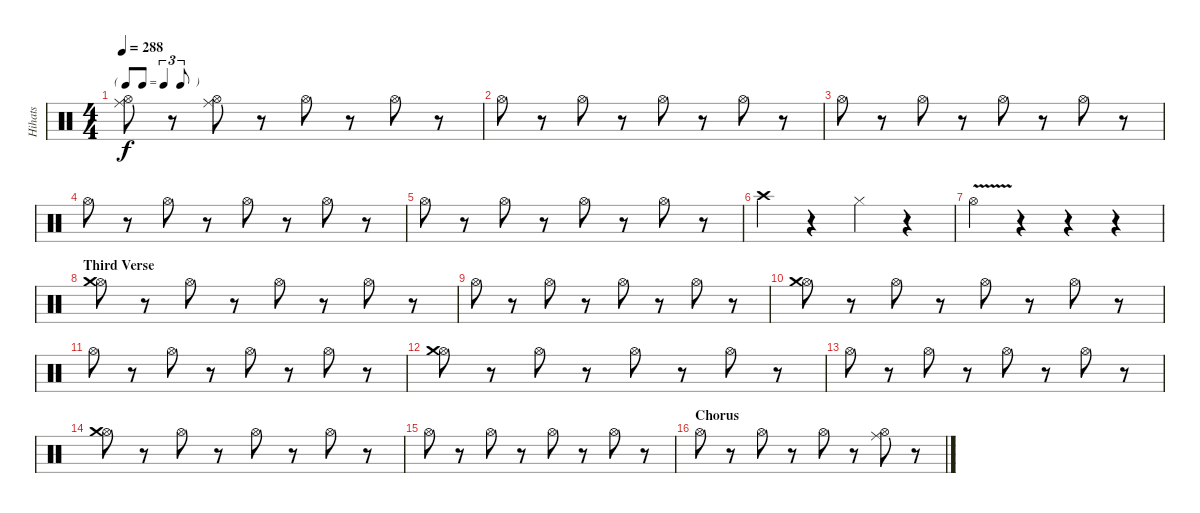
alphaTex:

\track ("Hihats" "Hihats") {instrument percussion}
\staff {score}
\articulation defaults
\ts (4 4)
\tf triplet8th
\tempo 288
\clef neutral
\ks c
("Hi-Hat (open)" "Ride (middle)").8{dy f} r.8 ("Hi-Hat (open)" "Ride (middle)").8 r.8 "Hi-Hat (open)".8 r.8 "Hi-Hat (open)".8 r.8 |
"Hi-Hat (open)".8 r.8 "Hi-Hat (open)".8 r.8 "Hi-Hat (open)".8 r.8 "Hi-Hat (open)".8 r.8 |
"Hi-Hat (open)".8 r.8 "Hi-Hat (open)".8 r.8 "Hi-Hat (open)".8 r.8 "Hi-Hat (open)".8 r.8 |
"Hi-Hat (open)".8 r.8 "Hi-Hat (open)".8 r.8 "Hi-Hat (open)".8 r.8 "Hi-Hat (open)".8 r.8 |
"Hi-Hat (open)".8 r.8 "Hi-Hat (open)".8 r.8 "Hi-Hat (open)".8 r.8 "Hi-Hat (open)".8 r.8 |
"Crash high (hit)".4 r.4 "Hi-Hat (closed)".4 r.4 |
"Hi-Hat (open)"{v}.4 r.4 r.4 r.4 |
\section ("" "Third Verse")
("Hi-Hat (open)" "Crash medium (hit)").8 r.8 "Hi-Hat (open)".8 r.8 "Hi-Hat (open)".8 r.8 "Hi-Hat (open)".8 r.8 |
"Hi-Hat (open)".8 r.8 "Hi-Hat (open)".8 r.8 "Hi-Hat (open)".8 r.8 "Hi-Hat (open)".8 r.8 |
("Hi-Hat (open)" "Crash medium (hit)").8 r.8 "Hi-Hat (open)".8 r.8 "Hi-Hat (open)".8 r.8 "Hi-Hat (open)".8 r.8 |
"Hi-Hat (open)".8 r.8 "Hi-Hat (open)".8 r.8 "Hi-Hat (open)".8 r.8 "Hi-Hat (open)".8 r.8 |
("Hi-Hat (open)" "Crash medium (hit)").8 r.8 "Hi-Hat (open)".8 r.8 "Hi-Hat (open)".8 r.8 "Hi-Hat (open)".8 r.8 |
"Hi-Hat (open)".8 r.8 "Hi-Hat (open)".8 r.8 "Hi-Hat (open)".8 r.8 "Hi-Hat (open)".8 r.8 |
("Hi-Hat (open)" "Crash medium (hit)").8 r.8 "Hi-Hat (open)".8 r.8 "Hi-Hat (open)".8 r.8 "Hi-Hat (open)".8 r.8 |
"Hi-Hat (open)".8 r.8 "Hi-Hat (open)".8 r.8 "Hi-Hat (open)".8 r.8 "Hi-Hat (open)".8 r.8 |
\section ("" "Chorus")
"Hi-Hat (open)".8 r.8 "Hi-Hat (open)".8 r.8 "Hi-Hat (open)".8 r.8 ("Hi-Hat (open)" "Ride (middle)").8 r.8
